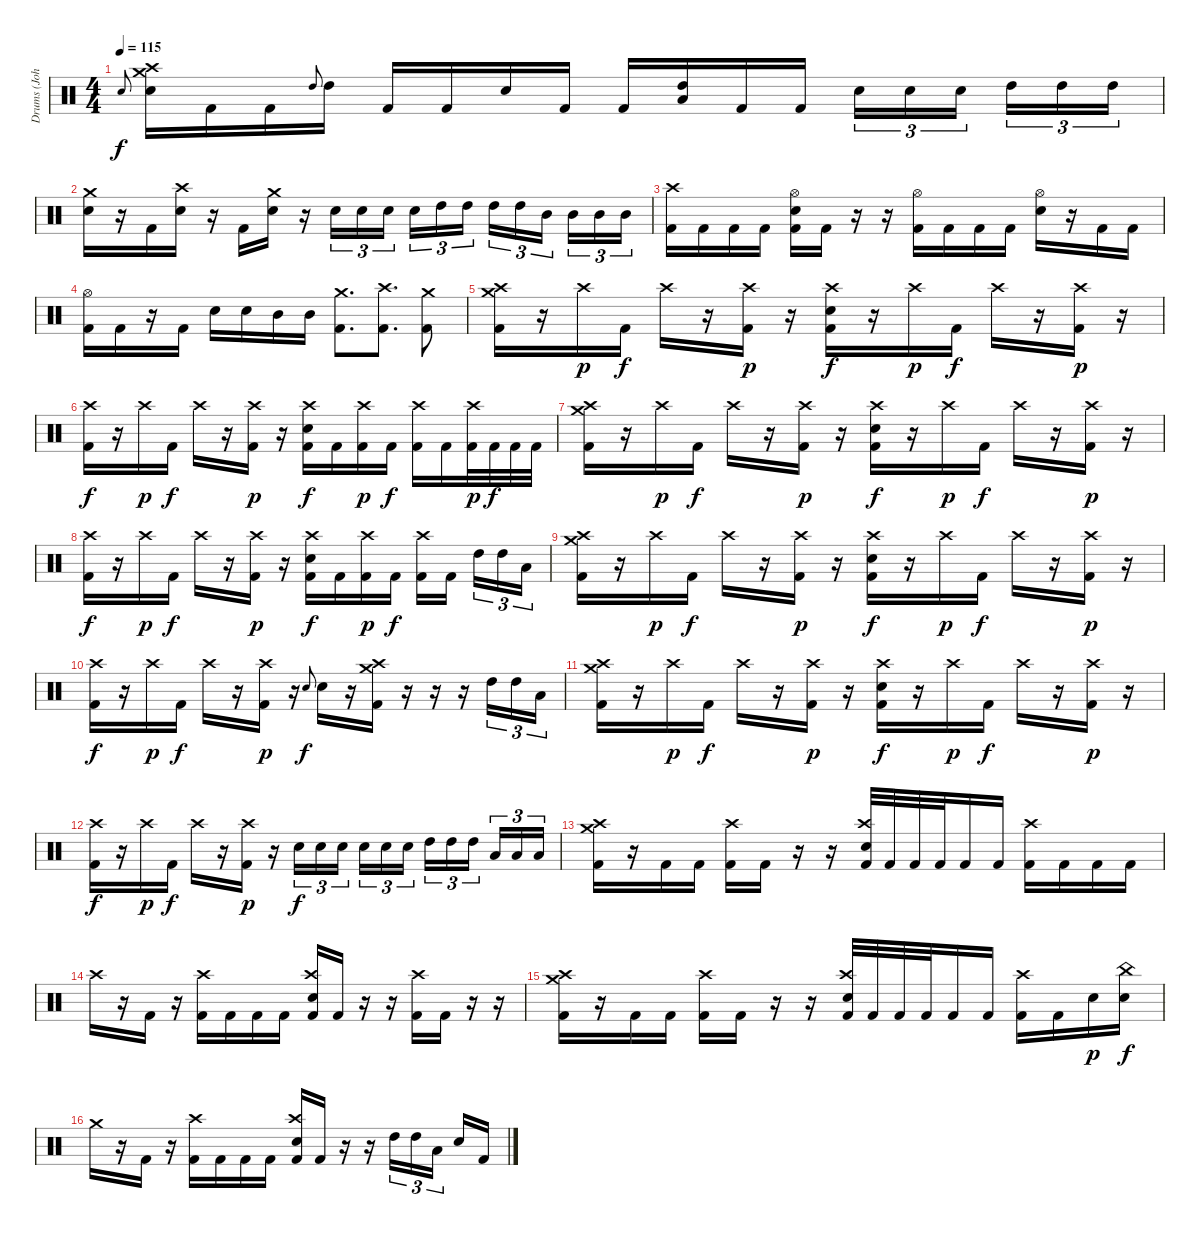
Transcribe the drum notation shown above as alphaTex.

\track ("Drums (Johno)" "Drums (Joh") {instrument percussion}
\staff {score}
\articulation defaults
\ts (4 4)
\tempo 115
\clef neutral
\ks c "Electric Snare (hit)".8{gr onbeat dy f}
("Crash medium (hit)" "Crash high (hit)" "Electric Snare (hit)").16 "Kick (hit) 2".16 "Kick (hit) 2".16 "High Tom (hit)".8{gr onbeat} "High Tom (hit)".16 "Kick (hit) 2".16 "Kick (hit) 2".16 "Electric Snare (hit)".16 "Kick (hit) 2".16 "Kick (hit) 2".16 ("Low Floor Tom (hit)" "High Tom (hit)").16 "Kick (hit) 2".16 "Kick (hit) 2".16 "Electric Snare (hit)".16{tu (3 2)} "Electric Snare (hit)".16{tu (3 2)} "Electric Snare (hit)".16{tu (3 2) beam splitsecondary} "High Tom (hit)".16{tu (3 2)} "High Tom (hit)".16{tu (3 2)} "High Tom (hit)".16{tu (3 2)} |
("Crash medium (hit)" "Electric Snare (hit)").16 r.16 "Kick (hit) 2".16 ("Crash high (hit)" "Electric Snare (hit)").16 r.16 "Kick (hit) 2".16 ("Crash medium (hit)" "Electric Snare (hit)").16 r.16 "Electric Snare (hit)".16{tu (3 2)} "Electric Snare (hit)".16{tu (3 2)} "Electric Snare (hit)".16{tu (3 2) beam splitsecondary} "Electric Snare (hit)".16{tu (3 2)} "High Tom (hit)".16{tu (3 2)} "High Tom (hit)".16{tu (3 2)} "High Tom (hit)".16{tu (3 2)} "High Tom (hit)".16{tu (3 2)} "Mid Tom (hit)".16{tu (3 2) beam splitsecondary} "Mid Tom (hit)".16{tu (3 2)} "Mid Tom (hit)".16{tu (3 2)} "Mid Tom (hit)".16{tu (3 2)} |
("Crash high (hit)" "Kick (hit) 2").16 "Kick (hit) 2".16 "Kick (hit) 2".16 "Kick (hit) 2".16 ("Hi-Hat (open)" "Electric Snare (hit)" "Kick (hit) 2").16 "Kick (hit) 2".16 r.16 r.16 ("Hi-Hat (open)" "Kick (hit) 2").16 "Kick (hit) 2".16 "Kick (hit) 2".16 "Kick (hit) 2".16 ("Hi-Hat (open)" "Electric Snare (hit)").16 r.16 "Kick (hit) 2".16 "Kick (hit) 2".16 |
("Hi-Hat (open)" "Kick (hit) 2").16 "Kick (hit) 2".16 r.16 "Kick (hit) 2".16 "Electric Snare (hit)".16 "Electric Snare (hit)".16 "Mid Tom (hit)".16 "Mid Tom (hit)".16 ("Crash medium (hit)" "Kick (hit) 2").8{d} ("Crash high (hit)" "Kick (hit) 2").8{d} ("Crash medium (hit)" "Kick (hit) 2").8 |
("Crash high (hit)" "Crash medium (hit)" "Kick (hit) 2").16 r.16 "Crash high (hit)".16{dy p} "Kick (hit) 2".16{dy f} "Crash high (hit)".16 r.16 ("Crash high (hit)" "Kick (hit) 2").16{dy p} r.16 ("Crash high (hit)" "Electric Snare (hit)" "Kick (hit) 2").16{dy f} r.16 "Crash high (hit)".16{dy p} "Kick (hit) 2".16{dy f} "Crash high (hit)".16 r.16 ("Crash high (hit)" "Kick (hit) 2").16{dy p} r.16 |
("Crash high (hit)" "Kick (hit) 2").16{dy f} r.16 "Crash high (hit)".16{dy p} "Kick (hit) 2".16{dy f} "Crash high (hit)".16 r.16 ("Crash high (hit)" "Kick (hit) 2").16{dy p} r.16 ("Crash high (hit)" "Electric Snare (hit)" "Kick (hit) 2").16{dy f} "Kick (hit) 2".16 ("Crash high (hit)" "Kick (hit) 2").16{dy p} "Kick (hit) 2".16{dy f} ("Crash high (hit)" "Kick (hit) 2").16 "Kick (hit) 2".16 ("Crash high (hit)" "Kick (hit) 2").32{dy p} "Kick (hit) 2".32{dy f} "Kick (hit) 2".32 "Kick (hit) 2".32 |
("Crash high (hit)" "Crash medium (hit)" "Kick (hit) 2").16 r.16 "Crash high (hit)".16{dy p} "Kick (hit) 2".16{dy f} "Crash high (hit)".16 r.16 ("Crash high (hit)" "Kick (hit) 2").16{dy p} r.16 ("Crash high (hit)" "Electric Snare (hit)" "Kick (hit) 2").16{dy f} r.16 "Crash high (hit)".16{dy p} "Kick (hit) 2".16{dy f} "Crash high (hit)".16 r.16 ("Crash high (hit)" "Kick (hit) 2").16{dy p} r.16 |
("Crash high (hit)" "Kick (hit) 2").16{dy f} r.16 "Crash high (hit)".16{dy p} "Kick (hit) 2".16{dy f} "Crash high (hit)".16 r.16 ("Crash high (hit)" "Kick (hit) 2").16{dy p} r.16 ("Crash high (hit)" "Electric Snare (hit)" "Kick (hit) 2").16{dy f} "Kick (hit) 2".16 ("Crash high (hit)" "Kick (hit) 2").16{dy p} "Kick (hit) 2".16{dy f} ("Crash high (hit)" "Kick (hit) 2").16 "Kick (hit) 2".16{beam splitsecondary} "High Tom (hit)".16{tu (3 2)} "High Tom (hit)".16{tu (3 2)} "Low Floor Tom (hit)".16{tu (3 2)} |
("Crash high (hit)" "Crash medium (hit)" "Kick (hit) 2").16 r.16 "Crash high (hit)".16{dy p} "Kick (hit) 2".16{dy f} "Crash high (hit)".16 r.16 ("Crash high (hit)" "Kick (hit) 2").16{dy p} r.16 ("Crash high (hit)" "Electric Snare (hit)" "Kick (hit) 2").16{dy f} r.16 "Crash high (hit)".16{dy p} "Kick (hit) 2".16{dy f} "Crash high (hit)".16 r.16 ("Crash high (hit)" "Kick (hit) 2").16{dy p} r.16 |
("Crash high (hit)" "Kick (hit) 2").16{dy f} r.16 "Crash high (hit)".16{dy p} "Kick (hit) 2".16{dy f} "Crash high (hit)".16 r.16 ("Crash high (hit)" "Kick (hit) 2").16{dy p} r.16 "Electric Snare (hit)".8{gr onbeat dy f} "Electric Snare (hit)".16 r.16 ("Crash medium (hit)" "Crash high (hit)" "Kick (hit) 2").16 r.16 r.16 r.16 "High Tom (hit)".16{tu (3 2)} "High Tom (hit)".16{tu (3 2)} "Low Floor Tom (hit)".16{tu (3 2)} |
("Crash high (hit)" "Crash medium (hit)" "Kick (hit) 2").16 r.16 "Crash high (hit)".16{dy p} "Kick (hit) 2".16{dy f} "Crash high (hit)".16 r.16 ("Crash high (hit)" "Kick (hit) 2").16{dy p} r.16 ("Crash high (hit)" "Electric Snare (hit)" "Kick (hit) 2").16{dy f} r.16 "Crash high (hit)".16{dy p} "Kick (hit) 2".16{dy f} "Crash high (hit)".16 r.16 ("Crash high (hit)" "Kick (hit) 2").16{dy p} r.16 |
("Crash high (hit)" "Kick (hit) 2").16{dy f} r.16 "Crash high (hit)".16{dy p} "Kick (hit) 2".16{dy f} "Crash high (hit)".16 r.16 ("Crash high (hit)" "Kick (hit) 2").16{dy p} r.16 "Electric Snare (hit)".16{tu (3 2) dy f} "Electric Snare (hit)".16{tu (3 2)} "Electric Snare (hit)".16{tu (3 2) beam splitsecondary} "Electric Snare (hit)".16{tu (3 2)} "Electric Snare (hit)".16{tu (3 2)} "Electric Snare (hit)".16{tu (3 2)} "High Tom (hit)".16{tu (3 2)} "High Tom (hit)".16{tu (3 2)} "High Tom (hit)".16{tu (3 2) beam splitsecondary} "Low Floor Tom (hit)".16{tu (3 2)} "Low Floor Tom (hit)".16{tu (3 2)} "Low Floor Tom (hit)".16{tu (3 2)} |
("Crash medium (hit)" "Crash high (hit)" "Kick (hit) 2").16 r.16 "Kick (hit) 2".16 "Kick (hit) 2".16 ("Crash high (hit)" "Kick (hit) 2").16 "Kick (hit) 2".16 r.16 r.16 ("Crash high (hit)" "Electric Snare (hit)" "Kick (hit) 2").32 "Kick (hit) 2".32 "Kick (hit) 2".32 "Kick (hit) 2".32 "Kick (hit) 2".16 "Kick (hit) 2".16 ("Crash high (hit)" "Kick (hit) 2").16 "Kick (hit) 2".16 "Kick (hit) 2".16 "Kick (hit) 2".16 |
"Crash high (hit)".16 r.16 "Kick (hit) 2".16 r.16 ("Crash high (hit)" "Kick (hit) 2").16 "Kick (hit) 2".16 "Kick (hit) 2".16 "Kick (hit) 2".16 ("Crash high (hit)" "Electric Snare (hit)" "Kick (hit) 2").16 "Kick (hit) 2".16 r.16 r.16 ("Crash high (hit)" "Kick (hit) 2").16 "Kick (hit) 2".16 r.16 r.16 |
("Crash medium (hit)" "Crash high (hit)" "Kick (hit) 2").16 r.16 "Kick (hit) 2".16 "Kick (hit) 2".16 ("Crash high (hit)" "Kick (hit) 2").16 "Kick (hit) 2".16 r.16 r.16 ("Crash high (hit)" "Electric Snare (hit)" "Kick (hit) 2").32 "Kick (hit) 2".32 "Kick (hit) 2".32 "Kick (hit) 2".32 "Kick (hit) 2".16 "Kick (hit) 2".16 ("Crash high (hit)" "Kick (hit) 2").16 "Kick (hit) 2".16 "Electric Snare (hit)".16{dy p} ("China (hit)" "Electric Snare (hit)").16{dy f} |
"Crash medium (hit)".16 r.16 "Kick (hit) 2".16 r.16 ("Crash high (hit)" "Kick (hit) 2").16 "Kick (hit) 2".16 "Kick (hit) 2".16 "Kick (hit) 2".16 ("Crash high (hit)" "Electric Snare (hit)" "Kick (hit) 2").16 "Kick (hit) 2".16 r.16 r.16 "High Tom (hit)".16{tu (3 2)} "High Tom (hit)".16{tu (3 2)} "Low Floor Tom (hit)".16{tu (3 2) beam splitsecondary} "Electric Snare (hit)".16 "Kick (hit) 2".16
